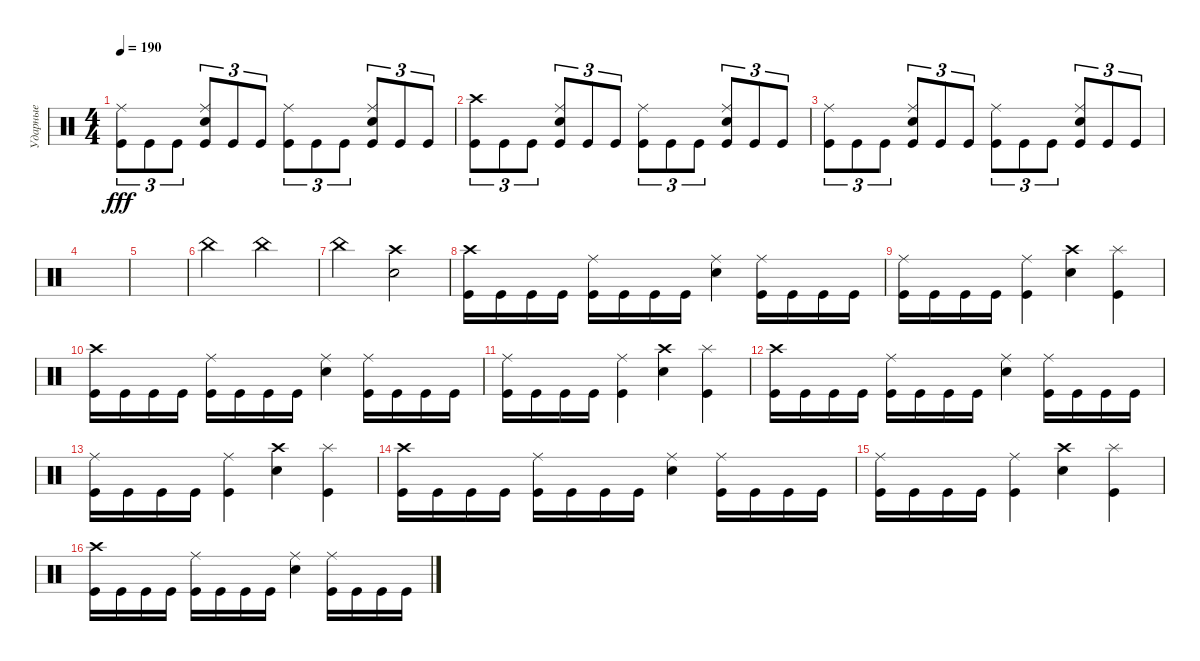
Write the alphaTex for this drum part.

\track ("Ударные" "Ударные") {instrument percussion}
\staff {score}
\articulation defaults
\ts (4 4)
\tempo 190
\clef neutral
\ks c
("Kick (hit)" "Ride (middle)").8{tu (3 2) dy fff} "Kick (hit)".8{tu (3 2)} "Kick (hit)".8{tu (3 2)} ("Kick (hit)" "Ride (middle)" "Snare (hit) 2").8{tu (3 2)} "Kick (hit)".8{tu (3 2)} "Kick (hit)".8{tu (3 2)} ("Kick (hit)" "Ride (middle)").8{tu (3 2)} "Kick (hit)".8{tu (3 2)} "Kick (hit)".8{tu (3 2)} ("Kick (hit)" "Snare (hit) 2" "Ride (middle)").8{tu (3 2)} "Kick (hit)".8{tu (3 2)} "Kick (hit)".8{tu (3 2)} |
("Kick (hit)" "Crash high (hit)").8{tu (3 2)} "Kick (hit)".8{tu (3 2)} "Kick (hit)".8{tu (3 2)} ("Kick (hit)" "Snare (hit) 2" "Ride (middle)").8{tu (3 2)} "Kick (hit)".8{tu (3 2)} "Kick (hit)".8{tu (3 2)} ("Kick (hit)" "Ride (middle)").8{tu (3 2)} "Kick (hit)".8{tu (3 2)} "Kick (hit)".8{tu (3 2)} ("Kick (hit)" "Snare (hit) 2" "Ride (middle)").8{tu (3 2)} "Kick (hit)".8{tu (3 2)} "Kick (hit)".8{tu (3 2)} |
("Kick (hit)" "Ride (middle)").8{tu (3 2)} "Kick (hit)".8{tu (3 2)} "Kick (hit)".8{tu (3 2)} ("Kick (hit)" "Ride (middle)" "Snare (hit) 2").8{tu (3 2)} "Kick (hit)".8{tu (3 2)} "Kick (hit)".8{tu (3 2)} ("Kick (hit)" "Ride (middle)").8{tu (3 2)} "Kick (hit)".8{tu (3 2)} "Kick (hit)".8{tu (3 2)} ("Kick (hit)" "Snare (hit) 2" "Ride (middle)").8{tu (3 2)} "Kick (hit)".8{tu (3 2)} "Kick (hit)".8{tu (3 2)} |
|
|
"China (hit)".2 "China (hit)".2 |
"China (hit)".2 ("Crash high (hit)" "Snare (hit) 2").2 |
("Crash high (hit)" "Kick (hit)").16 "Kick (hit)".16 "Kick (hit)".16 "Kick (hit)".16 ("Ride (middle)" "Kick (hit)").16 "Kick (hit)".16 "Kick (hit)".16 "Kick (hit)".16 ("Ride (middle)" "Snare (hit) 2").4 ("Ride (middle)" "Kick (hit)").16 "Kick (hit)".16 "Kick (hit)".16 "Kick (hit)".16 |
("Ride (middle)" "Kick (hit)").16 "Kick (hit)".16 "Kick (hit)".16 "Kick (hit)".16 ("Ride (middle)" "Kick (hit)").4 ("Crash high (hit)" "Snare (hit) 2").4 ("Splash (hit)" "Kick (hit)").4 |
("Crash high (hit)" "Kick (hit)").16 "Kick (hit)".16 "Kick (hit)".16 "Kick (hit)".16 ("Ride (middle)" "Kick (hit)").16 "Kick (hit)".16 "Kick (hit)".16 "Kick (hit)".16 ("Ride (middle)" "Snare (hit) 2").4 ("Ride (middle)" "Kick (hit)").16 "Kick (hit)".16 "Kick (hit)".16 "Kick (hit)".16 |
("Ride (middle)" "Kick (hit)").16 "Kick (hit)".16 "Kick (hit)".16 "Kick (hit)".16 ("Ride (middle)" "Kick (hit)").4 ("Crash high (hit)" "Snare (hit) 2").4 ("Splash (hit)" "Kick (hit)").4 |
("Crash high (hit)" "Kick (hit)").16 "Kick (hit)".16 "Kick (hit)".16 "Kick (hit)".16 ("Ride (middle)" "Kick (hit)").16 "Kick (hit)".16 "Kick (hit)".16 "Kick (hit)".16 ("Ride (middle)" "Snare (hit) 2").4 ("Ride (middle)" "Kick (hit)").16 "Kick (hit)".16 "Kick (hit)".16 "Kick (hit)".16 |
("Ride (middle)" "Kick (hit)").16 "Kick (hit)".16 "Kick (hit)".16 "Kick (hit)".16 ("Ride (middle)" "Kick (hit)").4 ("Crash high (hit)" "Snare (hit) 2").4 ("Splash (hit)" "Kick (hit)").4 |
("Crash high (hit)" "Kick (hit)").16 "Kick (hit)".16 "Kick (hit)".16 "Kick (hit)".16 ("Ride (middle)" "Kick (hit)").16 "Kick (hit)".16 "Kick (hit)".16 "Kick (hit)".16 ("Ride (middle)" "Snare (hit) 2").4 ("Ride (middle)" "Kick (hit)").16 "Kick (hit)".16 "Kick (hit)".16 "Kick (hit)".16 |
("Ride (middle)" "Kick (hit)").16 "Kick (hit)".16 "Kick (hit)".16 "Kick (hit)".16 ("Ride (middle)" "Kick (hit)").4 ("Crash high (hit)" "Snare (hit) 2").4 ("Splash (hit)" "Kick (hit)").4 |
("Crash high (hit)" "Kick (hit)").16 "Kick (hit)".16 "Kick (hit)".16 "Kick (hit)".16 ("Ride (middle)" "Kick (hit)").16 "Kick (hit)".16 "Kick (hit)".16 "Kick (hit)".16 ("Ride (middle)" "Snare (hit) 2").4 ("Ride (middle)" "Kick (hit)").16 "Kick (hit)".16 "Kick (hit)".16 "Kick (hit)".16
